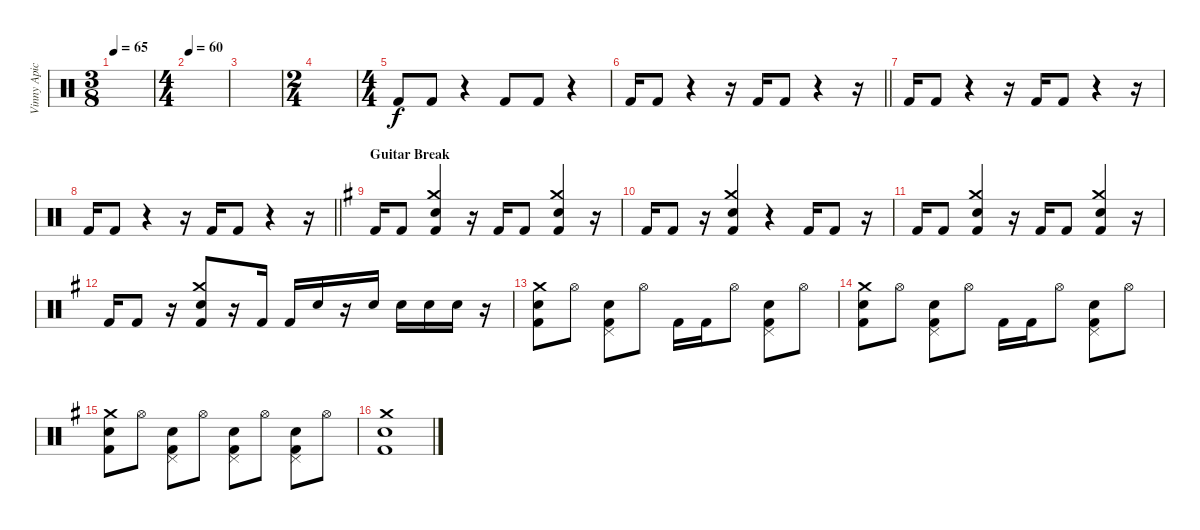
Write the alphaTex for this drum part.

\track ("Vinny Apice" "Vinny Apic") {instrument percussion}
\staff {score}
\articulation defaults
\ts (3 8)
\tempo 65
\clef neutral
\ks c
|
\ts (4 4)
\tempo 60
|
|
\ts (2 4)
|
\ts (4 4)
"Kick (hit) 2".8{dy f volume 3} "Kick (hit) 2".8 r.4 "Kick (hit) 2".8{volume 5} "Kick (hit) 2".8 r.4 |
\barLineRight lightlight "Kick (hit) 2".16{volume 7} "Kick (hit) 2".8
r.4 r.16 "Kick (hit) 2".16{volume 9} "Kick (hit) 2".8 r.4 r.16 |
"Kick (hit) 2".16{volume 11} "Kick (hit) 2".8 r.4 r.16 "Kick (hit) 2".16{volume 13} "Kick (hit) 2".8 r.4 r.16 |
\barLineRight lightlight "Kick (hit) 2".16 "Kick (hit) 2".8
r.4 r.16 "Kick (hit) 2".16 "Kick (hit) 2".8 r.4 r.16 |
\section ("" "Guitar Break")
\ks g "Kick (hit) 2".16 "Kick (hit) 2".8
("Crash medium (hit)" "Snare (hit) 2" "Kick (hit) 2").4 r.16 "Kick (hit) 2".16 "Kick (hit) 2".8 ("Crash medium (hit)" "Snare (hit) 2" "Kick (hit) 2").4 r.16 |
"Kick (hit) 2".16 "Kick (hit) 2".8 r.16 ("Crash medium (hit)" "Snare (hit) 2" "Kick (hit) 2").4 r.4 "Kick (hit) 2".16 "Kick (hit) 2".8 r.16 |
"Kick (hit) 2".16 "Kick (hit) 2".8 ("Crash medium (hit)" "Snare (hit) 2" "Kick (hit) 2").4 r.16 "Kick (hit) 2".16 "Kick (hit) 2".8 ("Crash medium (hit)" "Snare (hit) 2" "Kick (hit) 2").4 r.16 |
"Kick (hit) 2".16 "Kick (hit) 2".8 r.16 ("Crash medium (hit)" "Snare (hit) 2" "Kick (hit) 2").8 r.16 "Kick (hit) 2".16 "Kick (hit) 2".16 "Snare (hit) 2".16 r.16 "Snare (hit) 2".16 "Snare (hit) 2".16 "Snare (hit) 2".16 "Snare (hit) 2".16 r.16 |
("Crash medium (hit)" "Snare (hit) 2" "Kick (hit) 2").8 "Hi-Hat (open)".8 ("Pedal Hi-Hat (hit)" "Snare (hit) 2" "Kick (hit) 2").8 "Hi-Hat (open)".8 "Kick (hit) 2".16 "Kick (hit) 2".16 "Hi-Hat (open)".8 ("Pedal Hi-Hat (hit)" "Snare (hit) 2" "Kick (hit) 2").8 "Hi-Hat (open)".8 |
("Crash medium (hit)" "Snare (hit) 2" "Kick (hit) 2").8 "Hi-Hat (open)".8 ("Pedal Hi-Hat (hit)" "Snare (hit) 2" "Kick (hit) 2").8 "Hi-Hat (open)".8 "Kick (hit) 2".16 "Kick (hit) 2".16 "Hi-Hat (open)".8 ("Pedal Hi-Hat (hit)" "Snare (hit) 2" "Kick (hit) 2").8 "Hi-Hat (open)".8 |
("Crash medium (hit)" "Snare (hit) 2" "Kick (hit) 2").8 "Hi-Hat (open)".8 ("Pedal Hi-Hat (hit)" "Snare (hit) 2" "Kick (hit) 2").8 "Hi-Hat (open)".8 ("Pedal Hi-Hat (hit)" "Snare (hit) 2" "Kick (hit) 2").8 "Hi-Hat (open)".8 ("Pedal Hi-Hat (hit)" "Snare (hit) 2" "Kick (hit) 2").8 "Hi-Hat (open)".8 |
("Crash medium (hit)" "Snare (hit) 2" "Kick (hit) 2").1
